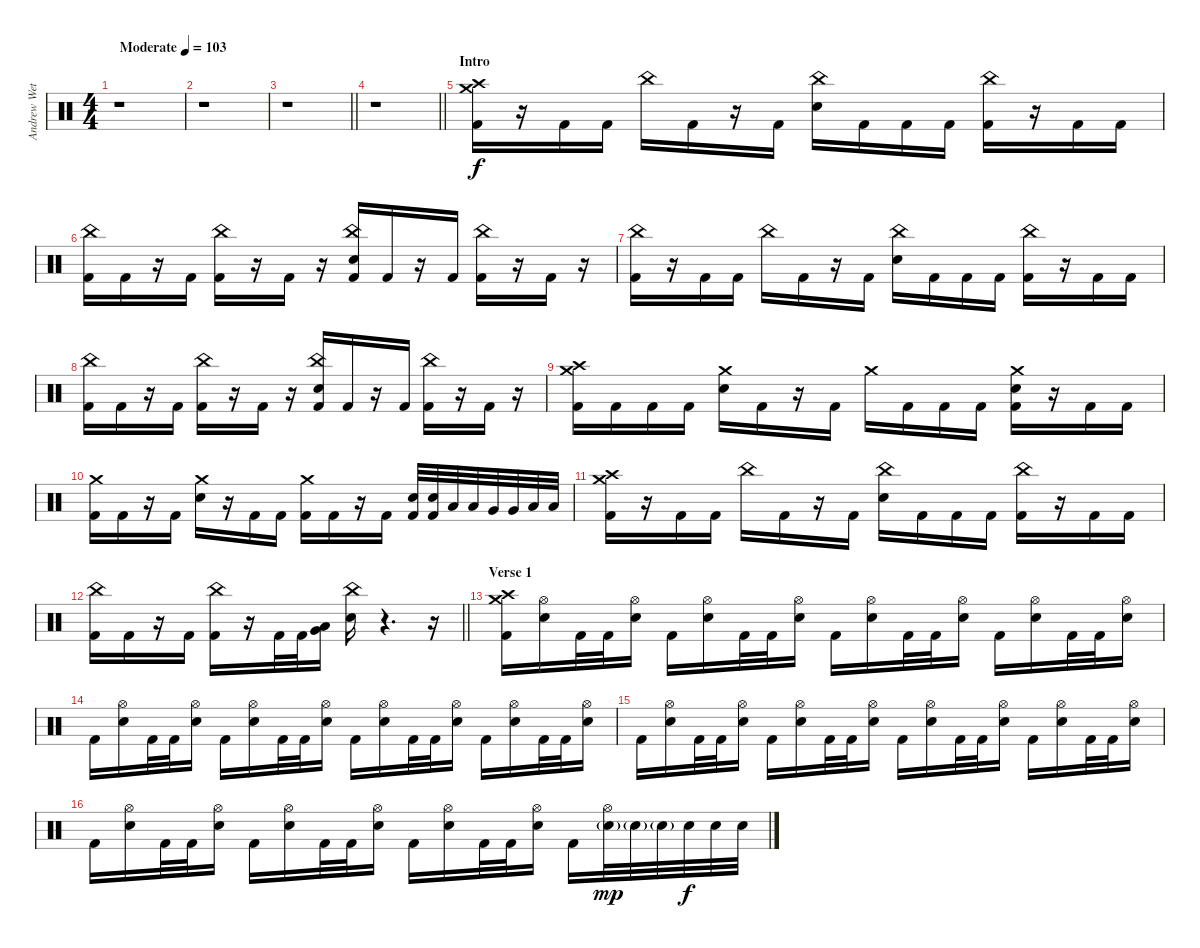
\track ("Andrew Wetzel - Drums" "Andrew Wet") {instrument percussion}
\staff {score}
\articulation defaults
\ts (4 4)
\tempo (103 "Moderate")
\clef neutral
\ks c
r.1{dy f} |
r.1 |
\barLineRight lightlight
r.1 |
\barLineRight lightlight
r.1 |
\section ("" "Intro")
("Crash high (hit)" "Crash medium (hit)" "Kick (hit) 2").16 r.16 "Kick (hit) 2".16 "Kick (hit) 2".16 "China (hit)".16 "Kick (hit) 2".16 r.16 "Kick (hit) 2".16 ("China (hit)" "Electric Snare (hit)").16 "Kick (hit) 2".16 "Kick (hit) 2".16 "Kick (hit) 2".16 ("China (hit)" "Kick (hit) 2").16 r.16 "Kick (hit) 2".16 "Kick (hit) 2".16 |
("China (hit)" "Kick (hit) 2").16 "Kick (hit) 2".16 r.16 "Kick (hit) 2".16 ("China (hit)" "Kick (hit) 2").16 r.16 "Kick (hit) 2".16 r.16 ("China (hit)" "Electric Snare (hit)" "Kick (hit) 2").16 "Kick (hit) 2".16 r.16 "Kick (hit) 2".16 ("China (hit)" "Kick (hit) 2").16 r.16 "Kick (hit) 2".16 r.16 |
("China (hit)" "Kick (hit) 2").16 r.16 "Kick (hit) 2".16 "Kick (hit) 2".16 "China (hit)".16 "Kick (hit) 2".16 r.16 "Kick (hit) 2".16 ("China (hit)" "Electric Snare (hit)").16 "Kick (hit) 2".16 "Kick (hit) 2".16 "Kick (hit) 2".16 ("China (hit)" "Kick (hit) 2").16 r.16 "Kick (hit) 2".16 "Kick (hit) 2".16 |
("China (hit)" "Kick (hit) 2").16 "Kick (hit) 2".16 r.16 "Kick (hit) 2".16 ("China (hit)" "Kick (hit) 2").16 r.16 "Kick (hit) 2".16 r.16 ("China (hit)" "Electric Snare (hit)" "Kick (hit) 2").16 "Kick (hit) 2".16 r.16 "Kick (hit) 2".16 ("China (hit)" "Kick (hit) 2").16 r.16 "Kick (hit) 2".16 r.16 |
("Crash high (hit)" "Crash medium (hit)" "Kick (hit) 2").16 "Kick (hit) 2".16 "Kick (hit) 2".16 "Kick (hit) 2".16 ("Crash medium (hit)" "Electric Snare (hit)").16 "Kick (hit) 2".16 r.16 "Kick (hit) 2".16 "Crash medium (hit)".16 "Kick (hit) 2".16 "Kick (hit) 2".16 "Kick (hit) 2".16 ("Crash medium (hit)" "Electric Snare (hit)" "Kick (hit) 2").16 r.16 "Kick (hit) 2".16 "Kick (hit) 2".16 |
("Crash medium (hit)" "Kick (hit) 2").16 "Kick (hit) 2".16 r.16 "Kick (hit) 2".16 ("Crash medium (hit)" "Electric Snare (hit)").16 r.16 "Kick (hit) 2".16 "Kick (hit) 2".16 ("Crash medium (hit)" "Kick (hit) 2").16 "Kick (hit) 2".16 r.16 "Kick (hit) 2".16 ("Electric Snare (hit)" "Kick (hit) 2").32 ("Electric Snare (hit)" "Kick (hit) 2").32 "Low Tom (hit)".32 "Low Tom (hit)".32 "Very Low Tom (hit)".32 "Very Low Tom (hit)".32 "Low Floor Tom (hit)".32 "Low Floor Tom (hit)".32 |
("Crash high (hit)" "Crash medium (hit)" "Kick (hit) 2").16 r.16 "Kick (hit) 2".16 "Kick (hit) 2".16 "China (hit)".16 "Kick (hit) 2".16 r.16 "Kick (hit) 2".16 ("China (hit)" "Electric Snare (hit)").16 "Kick (hit) 2".16 "Kick (hit) 2".16 "Kick (hit) 2".16 ("China (hit)" "Kick (hit) 2").16 r.16 "Kick (hit) 2".16 "Kick (hit) 2".16 |
\barLineRight lightlight
("China (hit)" "Kick (hit) 2").16 "Kick (hit) 2".16 r.16 "Kick (hit) 2".16 ("China (hit)" "Kick (hit) 2").16 r.16 "Kick (hit) 2".32 "Kick (hit) 2".32 ("Very Low Tom (hit)" "Low Floor Tom (hit)").16 ("China (hit)" "Electric Snare (hit)").16 r.4{d} r.16 |
\section ("" "Verse 1")
("Crash high (hit)" "Crash medium (hit)" "Kick (hit) 2").16 ("Hi-Hat (open)" "Electric Snare (hit)").16 "Kick (hit) 2".32 "Kick (hit) 2".32 ("Hi-Hat (open)" "Electric Snare (hit)").16 "Kick (hit) 2".16 ("Hi-Hat (open)" "Electric Snare (hit)").16 "Kick (hit) 2".32 "Kick (hit) 2".32 ("Hi-Hat (open)" "Electric Snare (hit)").16 "Kick (hit) 2".16 ("Hi-Hat (open)" "Electric Snare (hit)").16 "Kick (hit) 2".32 "Kick (hit) 2".32 ("Hi-Hat (open)" "Electric Snare (hit)").16 "Kick (hit) 2".16 ("Hi-Hat (open)" "Electric Snare (hit)").16 "Kick (hit) 2".32 "Kick (hit) 2".32 ("Hi-Hat (open)" "Electric Snare (hit)").16 |
"Kick (hit) 2".16 ("Hi-Hat (open)" "Electric Snare (hit)").16 "Kick (hit) 2".32 "Kick (hit) 2".32 ("Hi-Hat (open)" "Electric Snare (hit)").16 "Kick (hit) 2".16 ("Hi-Hat (open)" "Electric Snare (hit)").16 "Kick (hit) 2".32 "Kick (hit) 2".32 ("Hi-Hat (open)" "Electric Snare (hit)").16 "Kick (hit) 2".16 ("Hi-Hat (open)" "Electric Snare (hit)").16 "Kick (hit) 2".32 "Kick (hit) 2".32 ("Hi-Hat (open)" "Electric Snare (hit)").16 "Kick (hit) 2".16 ("Hi-Hat (open)" "Electric Snare (hit)").16 "Kick (hit) 2".32 "Kick (hit) 2".32 ("Hi-Hat (open)" "Electric Snare (hit)").16 |
"Kick (hit) 2".16 ("Hi-Hat (open)" "Electric Snare (hit)").16 "Kick (hit) 2".32 "Kick (hit) 2".32 ("Hi-Hat (open)" "Electric Snare (hit)").16 "Kick (hit) 2".16 ("Hi-Hat (open)" "Electric Snare (hit)").16 "Kick (hit) 2".32 "Kick (hit) 2".32 ("Hi-Hat (open)" "Electric Snare (hit)").16 "Kick (hit) 2".16 ("Hi-Hat (open)" "Electric Snare (hit)").16 "Kick (hit) 2".32 "Kick (hit) 2".32 ("Hi-Hat (open)" "Electric Snare (hit)").16 "Kick (hit) 2".16 ("Hi-Hat (open)" "Electric Snare (hit)").16 "Kick (hit) 2".32 "Kick (hit) 2".32 ("Hi-Hat (open)" "Electric Snare (hit)").16 |
"Kick (hit) 2".16 ("Hi-Hat (open)" "Electric Snare (hit)").16 "Kick (hit) 2".32 "Kick (hit) 2".32 ("Hi-Hat (open)" "Electric Snare (hit)").16 "Kick (hit) 2".16 ("Hi-Hat (open)" "Electric Snare (hit)").16 "Kick (hit) 2".32 "Kick (hit) 2".32 ("Hi-Hat (open)" "Electric Snare (hit)").16 "Kick (hit) 2".16 ("Hi-Hat (open)" "Electric Snare (hit)").16 "Kick (hit) 2".32 "Kick (hit) 2".32 ("Hi-Hat (open)" "Electric Snare (hit)").16 "Kick (hit) 2".16 ("Hi-Hat (open)" "Electric Snare (hit)"{g}).32{dy mp} "Electric Snare (hit)"{g}.32 "Electric Snare (hit)"{g}.32 "Electric Snare (hit)".32{dy f} "Electric Snare (hit)".32 "Electric Snare (hit)".32
